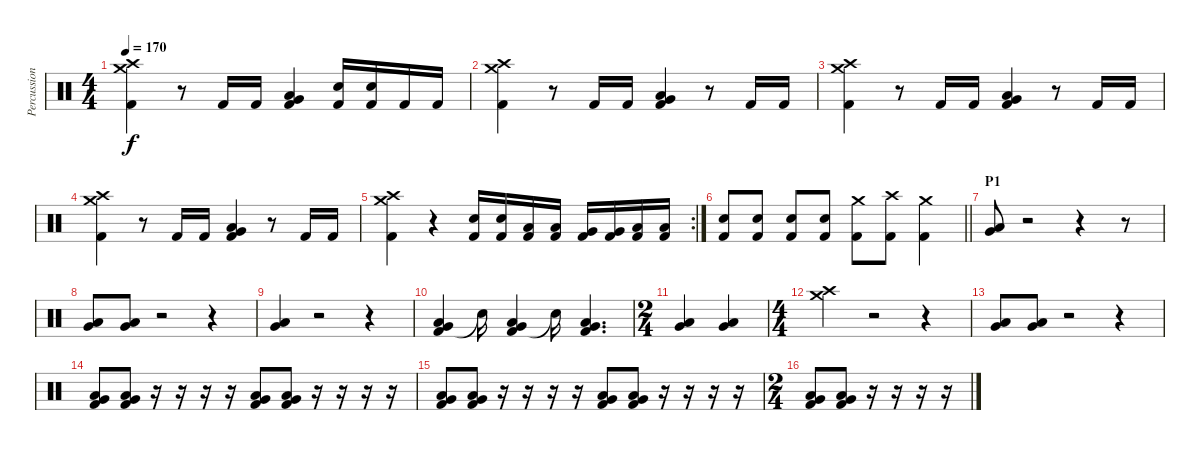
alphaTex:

\track ("Percussion" "Percussion") {instrument percussion}
\staff {score}
\articulation defaults
\ts (4 4)
\tempo 170
\clef neutral
\ks c
("Crash high (hit)" "Crash medium (hit)" "Kick (hit) 2").4{dy f} r.8 "Kick (hit) 2".16 "Kick (hit) 2".16 ("Very Low Tom (hit)" "Low Floor Tom (hit)" "Kick (hit) 2").4 ("Snare (hit) 2" "Kick (hit) 2").16 ("Snare (hit) 2" "Kick (hit) 2").16 "Kick (hit) 2".16 "Kick (hit) 2".16 |
("Crash high (hit)" "Crash medium (hit)" "Kick (hit) 2").4 r.8 "Kick (hit) 2".16 "Kick (hit) 2".16 ("Very Low Tom (hit)" "Low Floor Tom (hit)" "Kick (hit) 2").4 r.8 "Kick (hit) 2".16 "Kick (hit) 2".16 |
("Crash high (hit)" "Crash medium (hit)" "Kick (hit) 2").4 r.8 "Kick (hit) 2".16 "Kick (hit) 2".16 ("Very Low Tom (hit)" "Low Floor Tom (hit)" "Kick (hit) 2").4 r.8 "Kick (hit) 2".16 "Kick (hit) 2".16 |
("Crash high (hit)" "Crash medium (hit)" "Kick (hit) 2").4 r.8 "Kick (hit) 2".16 "Kick (hit) 2".16 ("Very Low Tom (hit)" "Low Floor Tom (hit)" "Kick (hit) 2").4 r.8 "Kick (hit) 2".16 "Kick (hit) 2".16 |
\rc 2
("Crash high (hit)" "Crash medium (hit)" "Kick (hit) 2").4 r.4 ("Snare (hit) 2" "Kick (hit) 2").16 ("Snare (hit) 2" "Kick (hit) 2").16 ("Low Tom (hit)" "Kick (hit) 2").16 ("Low Tom (hit)" "Kick (hit) 2").16 ("Very Low Tom (hit)" "Kick (hit) 2").16 ("Very Low Tom (hit)" "Kick (hit) 2").16 ("Low Floor Tom (hit)" "Kick (hit) 2").16 ("Low Floor Tom (hit)" "Kick (hit) 2").16 |
\barLineRight lightlight
("Snare (hit) 2" "Kick (hit) 2").8 ("Snare (hit) 2" "Kick (hit) 2").8 ("Snare (hit) 2" "Kick (hit) 2").8 ("Snare (hit) 2" "Kick (hit) 2").8 ("Crash medium (hit)" "Kick (hit) 2").8 ("Crash high (hit)" "Kick (hit) 2").8 ("Crash medium (hit)" "Kick (hit) 2").4 |
\section ("" "P1")
("Very Low Tom (hit)" "Low Floor Tom (hit)").8 r.2 r.4 r.8 |
("Very Low Tom (hit)" "Low Floor Tom (hit)").8 ("Very Low Tom (hit)" "Low Floor Tom (hit)").8 r.2 r.4 |
("Very Low Tom (hit)" "Low Floor Tom (hit)").4 r.2 r.4 |
("Kick (hit) 2" "Very Low Tom (hit)" "Low Floor Tom (hit)").4 "Snare (hit)"{t}.16 ("Kick (hit) 2" "Very Low Tom (hit)" "Low Floor Tom (hit)").4 "Snare (hit)"{t}.16 ("Kick (hit) 2" "Very Low Tom (hit)" "Low Floor Tom (hit)").4{d} |
\ts (2 4)
("Very Low Tom (hit)" "Low Floor Tom (hit)").4 ("Very Low Tom (hit)" "Low Floor Tom (hit)").4 |
\ts (4 4)
("Crash medium (hit)" "Crash high (hit)").4 r.2 r.4 |
("Very Low Tom (hit)" "Low Floor Tom (hit)").8 ("Very Low Tom (hit)" "Low Floor Tom (hit)").8 r.2 r.4 |
("Kick (hit) 2" "Very Low Tom (hit)" "Low Floor Tom (hit)").8 ("Kick (hit) 2" "Very Low Tom (hit)" "Low Floor Tom (hit)").8 r.16 r.16 r.16 r.16 ("Kick (hit) 2" "Very Low Tom (hit)" "Low Floor Tom (hit)").8 ("Kick (hit) 2" "Very Low Tom (hit)" "Low Floor Tom (hit)").8 r.16 r.16 r.16 r.16 |
("Kick (hit) 2" "Very Low Tom (hit)" "Low Floor Tom (hit)").8 ("Kick (hit) 2" "Very Low Tom (hit)" "Low Floor Tom (hit)").8 r.16 r.16 r.16 r.16 ("Kick (hit) 2" "Very Low Tom (hit)" "Low Floor Tom (hit)").8 ("Kick (hit) 2" "Very Low Tom (hit)" "Low Floor Tom (hit)").8 r.16 r.16 r.16 r.16 |
\ts (2 4)
("Kick (hit) 2" "Very Low Tom (hit)" "Low Floor Tom (hit)").8 ("Kick (hit) 2" "Very Low Tom (hit)" "Low Floor Tom (hit)").8 r.16 r.16 r.16 r.16
